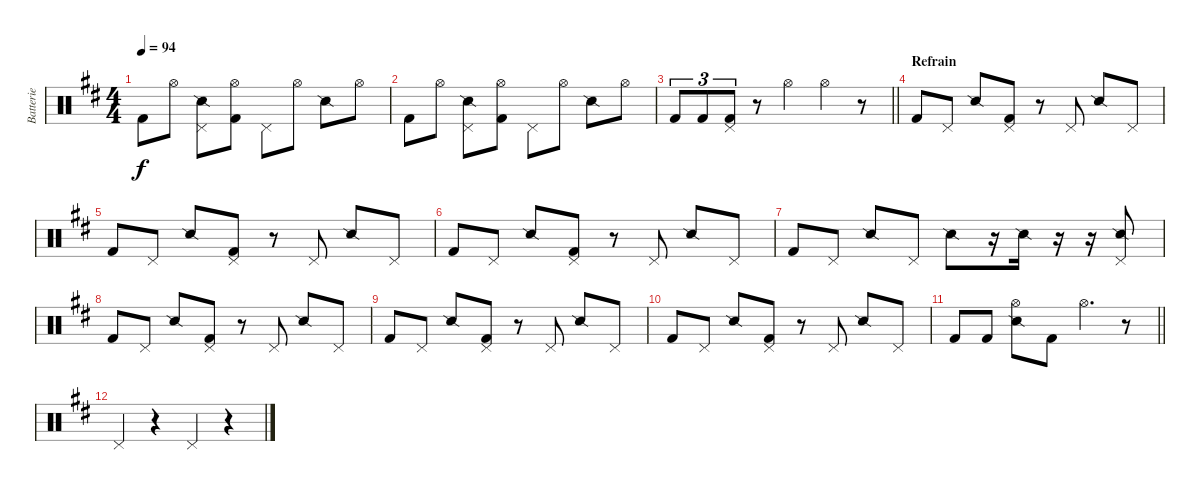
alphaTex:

\track ("Batterie" "Batterie") {instrument percussion}
\staff {score}
\articulation defaults
\ts (4 4)
\tempo 94
\clef neutral
\ks d "Kick (hit) 2".8{dy f} "Hi-Hat (open)".8
("Pedal Hi-Hat (hit)" "Snare (side stick) 2").8 ("Hi-Hat (open)" "Kick (hit) 2").8 "Pedal Hi-Hat (hit)".8 "Hi-Hat (open)".8 "Snare (side stick) 2".8 "Hi-Hat (open)".8 |
"Kick (hit) 2".8 "Hi-Hat (open)".8 ("Pedal Hi-Hat (hit)" "Snare (side stick) 2").8 ("Hi-Hat (open)" "Kick (hit) 2").8 "Pedal Hi-Hat (hit)".8 "Hi-Hat (open)".8 "Snare (side stick) 2".8 "Hi-Hat (open)".8 |
\barLineRight lightlight "Kick (hit) 2".8{tu (3 2)} "Kick (hit) 2".8{tu (3 2)}
("Pedal Hi-Hat (hit)" "Kick (hit) 2").8{tu (3 2)} r.8 "Hi-Hat (open)".4 "Hi-Hat (open)".4 r.8 |
\section ("" "Refrain")
"Kick (hit) 2".8 "Pedal Hi-Hat (hit)".8 "Snare (side stick) 2".8 ("Pedal Hi-Hat (hit)" "Kick (hit) 2").8 r.8 "Pedal Hi-Hat (hit)".8 "Snare (side stick) 2".8 "Pedal Hi-Hat (hit)".8 |
"Kick (hit) 2".8 "Pedal Hi-Hat (hit)".8 "Snare (side stick) 2".8 ("Pedal Hi-Hat (hit)" "Kick (hit) 2").8 r.8 "Pedal Hi-Hat (hit)".8 "Snare (side stick) 2".8 "Pedal Hi-Hat (hit)".8 |
"Kick (hit) 2".8 "Pedal Hi-Hat (hit)".8 "Snare (side stick) 2".8 ("Pedal Hi-Hat (hit)" "Kick (hit) 2").8 r.8 "Pedal Hi-Hat (hit)".8 "Snare (side stick) 2".8 "Pedal Hi-Hat (hit)".8 |
"Kick (hit) 2".8 "Pedal Hi-Hat (hit)".8 "Snare (side stick) 2".8 "Pedal Hi-Hat (hit)".8 "Snare (side stick) 2".8 r.16 "Snare (side stick) 2".16 r.16 r.16 ("Pedal Hi-Hat (hit)" "Snare (side stick) 2").8 |
"Kick (hit) 2".8 "Pedal Hi-Hat (hit)".8 "Snare (side stick) 2".8 ("Pedal Hi-Hat (hit)" "Kick (hit) 2").8 r.8 "Pedal Hi-Hat (hit)".8 "Snare (side stick) 2".8 "Pedal Hi-Hat (hit)".8 |
"Kick (hit) 2".8 "Pedal Hi-Hat (hit)".8 "Snare (side stick) 2".8 ("Pedal Hi-Hat (hit)" "Kick (hit) 2").8 r.8 "Pedal Hi-Hat (hit)".8 "Snare (side stick) 2".8 "Pedal Hi-Hat (hit)".8 |
"Kick (hit) 2".8 "Pedal Hi-Hat (hit)".8 "Snare (side stick) 2".8 ("Pedal Hi-Hat (hit)" "Kick (hit) 2").8 r.8 "Pedal Hi-Hat (hit)".8 "Snare (side stick) 2".8 "Pedal Hi-Hat (hit)".8 |
\barLineRight lightlight "Kick (hit) 2".8 "Kick (hit) 2".8
("Hi-Hat (open)" "Snare (side stick) 2").8 "Kick (hit) 2".8 "Hi-Hat (open)".4{d} r.8 |
"Pedal Hi-Hat (hit)".4 r.4 "Pedal Hi-Hat (hit)".4 r.4
